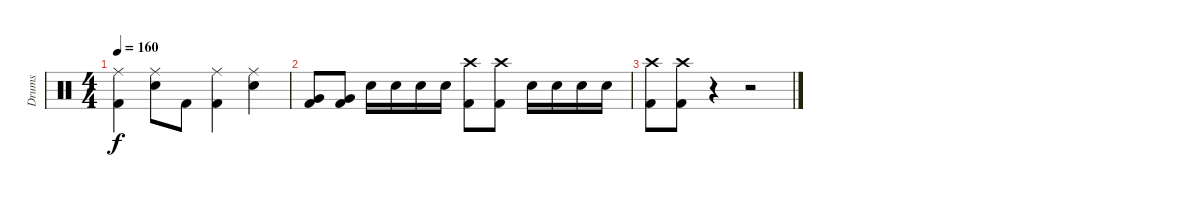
\track ("Drums" "Drums") {instrument percussion}
\staff {score}
\articulation defaults
\ts (4 4)
\tempo 160
\clef neutral
\ks c
("Ride (middle)" "Kick (hit) 2").4{dy f} ("Ride (middle)" "Electric Snare (hit)").8 "Kick (hit) 2".8 ("Ride (middle)" "Kick (hit) 2").4 ("Ride (middle)" "Electric Snare (hit)").4 |
("Very Low Tom (hit)" "Kick (hit) 2").8 ("Very Low Tom (hit)" "Kick (hit) 2").8 "Electric Snare (hit)".16 "Electric Snare (hit)".16 "Electric Snare (hit)".16 "Electric Snare (hit)".16 ("Crash high (hit)" "Kick (hit) 2").8 ("Crash high (hit)" "Kick (hit) 2").8 "Electric Snare (hit)".16 "Electric Snare (hit)".16 "Electric Snare (hit)".16 "Electric Snare (hit)".16 |
("Crash high (hit)" "Kick (hit) 2").8 ("Crash high (hit)" "Kick (hit) 2").8 r.4 r.2
